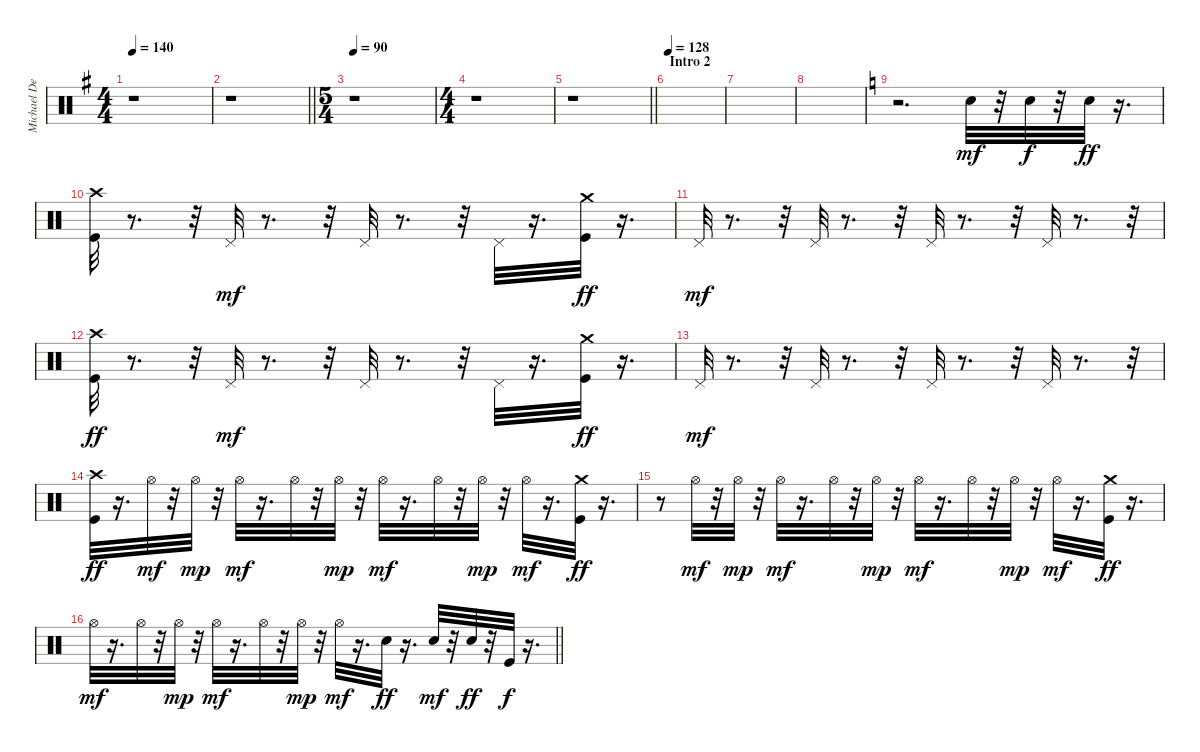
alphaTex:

\track ("Michael DeRosier" "Michael De") {instrument percussion}
\staff {score}
\articulation defaults
\ts (4 4)
\tempo 140
\clef neutral
\ks g
r.1{dy mf} |
\barLineRight lightlight
r.1 |
\ts (5 4)
\tempo 90
r.1 |
\ts (4 4)
r.1 |
\barLineRight lightlight
r.1 |
\section ("" "Intro 2")
\tempo 128
|
|
|
\ks c
r.2{d} "Snare (hit) 2".32 r.32 "Snare (hit) 2".32{dy f} r.32 "Snare (hit) 2".32{dy ff} r.16{d} |
("Kick (hit)" "Crash high (hit)").32 r.8{d} r.32 "Pedal Hi-Hat (hit)".32{dy mf} r.8{d} r.32 "Pedal Hi-Hat (hit)".32 r.8{d} r.32 "Pedal Hi-Hat (hit)".32 r.16{d} ("Kick (hit)" "Crash medium (hit)").32{dy ff} r.16{d} |
"Pedal Hi-Hat (hit)".32{dy mf} r.8{d} r.32 "Pedal Hi-Hat (hit)".32 r.8{d} r.32 "Pedal Hi-Hat (hit)".32 r.8{d} r.32 "Pedal Hi-Hat (hit)".32 r.8{d} r.32 |
("Kick (hit)" "Crash high (hit)").32{dy ff} r.8{d} r.32 "Pedal Hi-Hat (hit)".32{dy mf} r.8{d} r.32 "Pedal Hi-Hat (hit)".32 r.8{d} r.32 "Pedal Hi-Hat (hit)".32 r.16{d} ("Kick (hit)" "Crash medium (hit)").32{dy ff} r.16{d} |
"Pedal Hi-Hat (hit)".32{dy mf} r.8{d} r.32 "Pedal Hi-Hat (hit)".32 r.8{d} r.32 "Pedal Hi-Hat (hit)".32 r.8{d} r.32 "Pedal Hi-Hat (hit)".32 r.8{d} r.32 |
("Kick (hit)" "Crash high (hit)").32{dy ff} r.16{d} "Hi-Hat (open)".32{dy mf} r.32 "Hi-Hat (open)".32{dy mp} r.32 "Hi-Hat (open)".32{dy mf} r.16{d} "Hi-Hat (open)".32 r.32 "Hi-Hat (open)".32{dy mp} r.32 "Hi-Hat (open)".32{dy mf} r.16{d} "Hi-Hat (open)".32 r.32 "Hi-Hat (open)".32{dy mp} r.32 "Hi-Hat (open)".32{dy mf} r.16{d} ("Kick (hit)" "Crash medium (hit)").32{dy ff} r.16{d} |
r.8 "Hi-Hat (open)".32{dy mf} r.32 "Hi-Hat (open)".32{dy mp} r.32 "Hi-Hat (open)".32{dy mf} r.16{d} "Hi-Hat (open)".32 r.32 "Hi-Hat (open)".32{dy mp} r.32 "Hi-Hat (open)".32{dy mf} r.16{d} "Hi-Hat (open)".32 r.32 "Hi-Hat (open)".32{dy mp} r.32 "Hi-Hat (open)".32{dy mf} r.16{d} ("Kick (hit)" "Crash medium (hit)").32{dy ff} r.16{d} |
\barLineRight lightlight "Hi-Hat (open)".32{dy mf}
r.16{d} "Hi-Hat (open)".32 r.32 "Hi-Hat (open)".32{dy mp} r.32 "Hi-Hat (open)".32{dy mf} r.16{d} "Hi-Hat (open)".32 r.32 "Hi-Hat (open)".32{dy mp} r.32 "Hi-Hat (open)".32{dy mf} r.16{d} "Snare (hit) 2".32{dy ff} r.16{d} "Snare (hit) 2".32{dy mf} r.32 "Snare (hit) 2".32{dy ff} r.32 "Kick (hit)".32{dy f} r.16{d}
